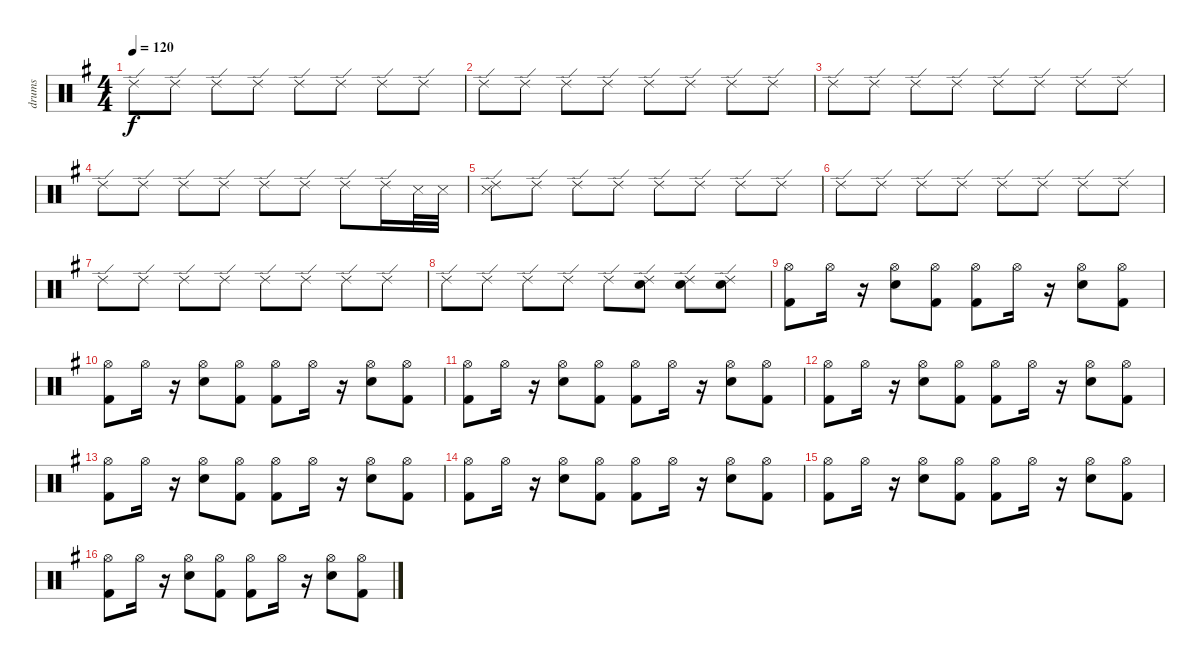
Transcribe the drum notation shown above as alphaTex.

\track ("drums" "drums") {instrument percussion bank 177}
\staff {score}
\articulation defaults
\ts (4 4)
\tempo 120
\clef neutral
\ks g "Ride (edge) 2".8{dy f} "Ride (edge) 2".8 "Ride (edge) 2".8 "Ride (edge) 2".8 "Ride (edge) 2".8 "Ride (edge) 2".8 "Ride (edge) 2".8 "Ride (edge) 2".8
|
"Ride (edge) 2".8 "Ride (edge) 2".8 "Ride (edge) 2".8 "Ride (edge) 2".8 "Ride (edge) 2".8 "Ride (edge) 2".8 "Ride (edge) 2".8 "Ride (edge) 2".8 |
"Ride (edge) 2".8 "Ride (edge) 2".8 "Ride (edge) 2".8 "Ride (edge) 2".8 "Ride (edge) 2".8 "Ride (edge) 2".8 "Ride (edge) 2".8 "Ride (edge) 2".8 |
"Ride (edge) 2".8 "Ride (edge) 2".8 "Ride (edge) 2".8 "Ride (edge) 2".8 "Ride (edge) 2".8 "Ride (edge) 2".8 "Ride (edge) 2".8 "Ride (edge) 2".16 "Snare (side stick) 3".32 "Snare (side stick) 3".32 |
("Snare (side stick) 3" "Ride (edge) 2").8 "Ride (edge) 2".8 "Ride (edge) 2".8 "Ride (edge) 2".8 "Ride (edge) 2".8 "Ride (edge) 2".8 "Ride (edge) 2".8 "Ride (edge) 2".8 |
"Ride (edge) 2".8 "Ride (edge) 2".8 "Ride (edge) 2".8 "Ride (edge) 2".8 "Ride (edge) 2".8 "Ride (edge) 2".8 "Ride (edge) 2".8 "Ride (edge) 2".8 |
"Ride (edge) 2".8 "Ride (edge) 2".8 "Ride (edge) 2".8 "Ride (edge) 2".8 "Ride (edge) 2".8 "Ride (edge) 2".8 "Ride (edge) 2".8 "Ride (edge) 2".8 |
"Ride (edge) 2".8 "Ride (edge) 2".8 "Ride (edge) 2".8 "Ride (edge) 2".8 "Ride (edge) 2".8 ("Ride (edge) 2" "Electric Snare (hit)").8 ("Ride (edge) 2" "Electric Snare (hit)").8 ("Ride (edge) 2" "Electric Snare (hit)").8 |
("Kick (hit) 2" "Hi-Hat (open)").8 "Hi-Hat (open)".16 r.16 ("Electric Snare (hit)" "Hi-Hat (open)").8 ("Kick (hit) 2" "Hi-Hat (open)").8 ("Kick (hit) 2" "Hi-Hat (open)").8 "Hi-Hat (open)".16 r.16 ("Electric Snare (hit)" "Hi-Hat (open)").8 ("Kick (hit) 2" "Hi-Hat (open)").8 |
("Hi-Hat (open)" "Kick (hit) 2").8 "Hi-Hat (open)".16 r.16 ("Electric Snare (hit)" "Hi-Hat (open)").8 ("Kick (hit) 2" "Hi-Hat (open)").8 ("Kick (hit) 2" "Hi-Hat (open)").8 "Hi-Hat (open)".16 r.16 ("Electric Snare (hit)" "Hi-Hat (open)").8 ("Kick (hit) 2" "Hi-Hat (open)").8 |
("Hi-Hat (open)" "Kick (hit) 2").8 "Hi-Hat (open)".16 r.16 ("Electric Snare (hit)" "Hi-Hat (open)").8 ("Kick (hit) 2" "Hi-Hat (open)").8 ("Kick (hit) 2" "Hi-Hat (open)").8 "Hi-Hat (open)".16 r.16 ("Electric Snare (hit)" "Hi-Hat (open)").8 ("Kick (hit) 2" "Hi-Hat (open)").8 |
("Hi-Hat (open)" "Kick (hit) 2").8 "Hi-Hat (open)".16 r.16 ("Electric Snare (hit)" "Hi-Hat (open)").8 ("Kick (hit) 2" "Hi-Hat (open)").8 ("Kick (hit) 2" "Hi-Hat (open)").8 "Hi-Hat (open)".16 r.16 ("Electric Snare (hit)" "Hi-Hat (open)").8 ("Kick (hit) 2" "Hi-Hat (open)").8 |
("Kick (hit) 2" "Hi-Hat (open)").8 "Hi-Hat (open)".16 r.16 ("Electric Snare (hit)" "Hi-Hat (open)").8 ("Kick (hit) 2" "Hi-Hat (open)").8 ("Kick (hit) 2" "Hi-Hat (open)").8 "Hi-Hat (open)".16 r.16 ("Electric Snare (hit)" "Hi-Hat (open)").8 ("Kick (hit) 2" "Hi-Hat (open)").8 |
("Kick (hit) 2" "Hi-Hat (open)").8 "Hi-Hat (open)".16 r.16 ("Electric Snare (hit)" "Hi-Hat (open)").8 ("Kick (hit) 2" "Hi-Hat (open)").8 ("Kick (hit) 2" "Hi-Hat (open)").8 "Hi-Hat (open)".16 r.16 ("Electric Snare (hit)" "Hi-Hat (open)").8 ("Kick (hit) 2" "Hi-Hat (open)").8 |
("Kick (hit) 2" "Hi-Hat (open)").8 "Hi-Hat (open)".16 r.16 ("Electric Snare (hit)" "Hi-Hat (open)").8 ("Kick (hit) 2" "Hi-Hat (open)").8 ("Kick (hit) 2" "Hi-Hat (open)").8 "Hi-Hat (open)".16 r.16 ("Electric Snare (hit)" "Hi-Hat (open)").8 ("Kick (hit) 2" "Hi-Hat (open)").8 |
("Kick (hit) 2" "Hi-Hat (open)").8 "Hi-Hat (open)".16 r.16 ("Electric Snare (hit)" "Hi-Hat (open)").8 ("Kick (hit) 2" "Hi-Hat (open)").8 ("Kick (hit) 2" "Hi-Hat (open)").8 "Hi-Hat (open)".16 r.16 ("Electric Snare (hit)" "Hi-Hat (open)").8 ("Kick (hit) 2" "Hi-Hat (open)").8
